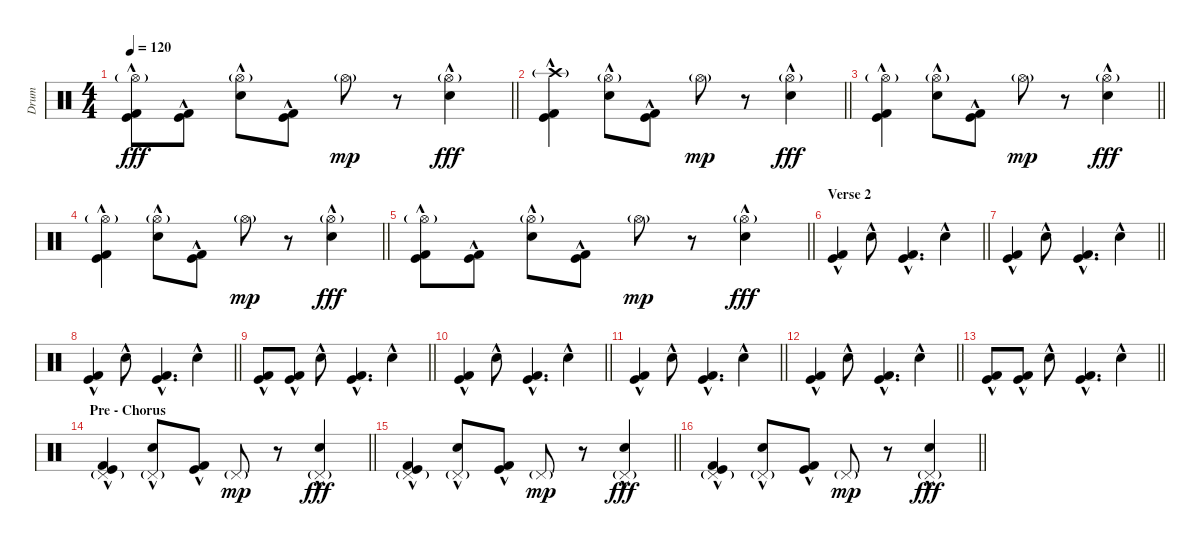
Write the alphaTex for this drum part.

\track ("Drum" "Drum") {instrument percussion}
\staff {score}
\articulation defaults
\ts (4 4)
\tempo 120
\clef neutral
\barLineRight lightlight
\ks c
("Hi-Hat (open)"{g} "Kick (hit) 2"{hac} "Kick (hit)"{hac}).8{dy fff} ("Kick (hit) 2"{hac} "Kick (hit)"{hac}).8 ("Hi-Hat (open)"{g} "Snare (hit) 2"{hac}).8 ("Kick (hit) 2"{hac} "Kick (hit)"{hac}).8 "Hi-Hat (open)"{g}.8{dy mp} r.8 ("Hi-Hat (open)"{g} "Snare (hit) 2"{hac}).4{dy fff} |
\barLineRight lightlight
("Crash high (hit)"{g} "Kick (hit) 2"{hac} "Kick (hit)"{hac}).4 ("Hi-Hat (open)"{g} "Snare (hit) 2"{hac}).8 ("Kick (hit) 2"{hac} "Kick (hit)"{hac}).8 "Hi-Hat (open)"{g}.8{dy mp} r.8 ("Hi-Hat (open)"{g} "Snare (hit) 2"{hac}).4{dy fff} |
\barLineRight lightlight
("Hi-Hat (open)"{g} "Kick (hit) 2"{hac} "Kick (hit)"{hac}).4 ("Hi-Hat (open)"{g} "Snare (hit) 2"{hac}).8 ("Kick (hit) 2"{hac} "Kick (hit)"{hac}).8 "Hi-Hat (open)"{g}.8{dy mp} r.8 ("Hi-Hat (open)"{g} "Snare (hit) 2"{hac}).4{dy fff} |
\barLineRight lightlight
("Hi-Hat (open)"{g} "Kick (hit) 2"{hac} "Kick (hit)"{hac}).4 ("Hi-Hat (open)"{g} "Snare (hit) 2"{hac}).8 ("Kick (hit) 2"{hac} "Kick (hit)"{hac}).8 "Hi-Hat (open)"{g}.8{dy mp} r.8 ("Hi-Hat (open)"{g} "Snare (hit) 2"{hac}).4{dy fff} |
\barLineRight lightlight
("Hi-Hat (open)"{g} "Kick (hit) 2"{hac} "Kick (hit)"{hac}).8 ("Kick (hit) 2"{hac} "Kick (hit)"{hac}).8 ("Hi-Hat (open)"{g} "Snare (hit) 2"{hac}).8 ("Kick (hit) 2"{hac} "Kick (hit)"{hac}).8 "Hi-Hat (open)"{g}.8{dy mp} r.8 ("Hi-Hat (open)"{g} "Snare (hit) 2"{hac}).4{dy fff} |
\section ("" "Verse 2")
\barLineRight lightlight
("Kick (hit) 2"{hac} "Kick (hit)"{hac}).4 "Snare (hit) 2"{hac}.8 ("Kick (hit) 2"{hac} "Kick (hit)"{hac}).4{d} "Snare (hit) 2"{hac}.4 |
\barLineRight lightlight
("Kick (hit) 2"{hac} "Kick (hit)"{hac}).4 "Snare (hit) 2"{hac}.8 ("Kick (hit) 2"{hac} "Kick (hit)"{hac}).4{d} "Snare (hit) 2"{hac}.4 |
\barLineRight lightlight
("Kick (hit) 2"{hac} "Kick (hit)"{hac}).4 "Snare (hit) 2"{hac}.8 ("Kick (hit) 2"{hac} "Kick (hit)"{hac}).4{d} "Snare (hit) 2"{hac}.4 |
\barLineRight lightlight
("Kick (hit) 2"{hac} "Kick (hit)"{hac}).8 ("Kick (hit) 2"{hac} "Kick (hit)"{hac}).8 "Snare (hit) 2"{hac}.8 ("Kick (hit) 2"{hac} "Kick (hit)"{hac}).4{d} "Snare (hit) 2"{hac}.4 |
\barLineRight lightlight
("Kick (hit) 2"{hac} "Kick (hit)"{hac}).4 "Snare (hit) 2"{hac}.8 ("Kick (hit) 2"{hac} "Kick (hit)"{hac}).4{d} "Snare (hit) 2"{hac}.4 |
\barLineRight lightlight
("Kick (hit) 2"{hac} "Kick (hit)"{hac}).4 "Snare (hit) 2"{hac}.8 ("Kick (hit) 2"{hac} "Kick (hit)"{hac}).4{d} "Snare (hit) 2"{hac}.4 |
\barLineRight lightlight
("Kick (hit) 2"{hac} "Kick (hit)"{hac}).4 "Snare (hit) 2"{hac}.8 ("Kick (hit) 2"{hac} "Kick (hit)"{hac}).4{d} "Snare (hit) 2"{hac}.4 |
\barLineRight lightlight
("Kick (hit) 2"{hac} "Kick (hit)"{hac}).8 ("Kick (hit) 2"{hac} "Kick (hit)"{hac}).8 "Snare (hit) 2"{hac}.8 ("Kick (hit) 2"{hac} "Kick (hit)"{hac}).4{d} "Snare (hit) 2"{hac}.4 |
\section ("" "Pre - Chorus")
\barLineRight lightlight
("Pedal Hi-Hat (hit)"{g} "Kick (hit) 2"{hac} "Kick (hit)"{hac}).4 ("Pedal Hi-Hat (hit)"{g} "Snare (hit) 2"{hac}).8 ("Kick (hit) 2"{hac} "Kick (hit)"{hac}).8 "Pedal Hi-Hat (hit)"{g}.8{dy mp} r.8 ("Pedal Hi-Hat (hit)"{g} "Snare (hit) 2"{hac}).4{dy fff} |
\barLineRight lightlight
("Pedal Hi-Hat (hit)"{g} "Kick (hit) 2"{hac} "Kick (hit)"{hac}).4 ("Pedal Hi-Hat (hit)"{g} "Snare (hit) 2"{hac}).8 ("Kick (hit) 2"{hac} "Kick (hit)"{hac}).8 "Pedal Hi-Hat (hit)"{g}.8{dy mp} r.8 ("Pedal Hi-Hat (hit)"{g} "Snare (hit) 2"{hac}).4{dy fff} |
\barLineRight lightlight
("Pedal Hi-Hat (hit)"{g} "Kick (hit) 2"{hac} "Kick (hit)"{hac}).4 ("Pedal Hi-Hat (hit)"{g} "Snare (hit) 2"{hac}).8 ("Kick (hit) 2"{hac} "Kick (hit)"{hac}).8 "Pedal Hi-Hat (hit)"{g}.8{dy mp} r.8 ("Pedal Hi-Hat (hit)"{g} "Snare (hit) 2"{hac}).4{dy fff}
